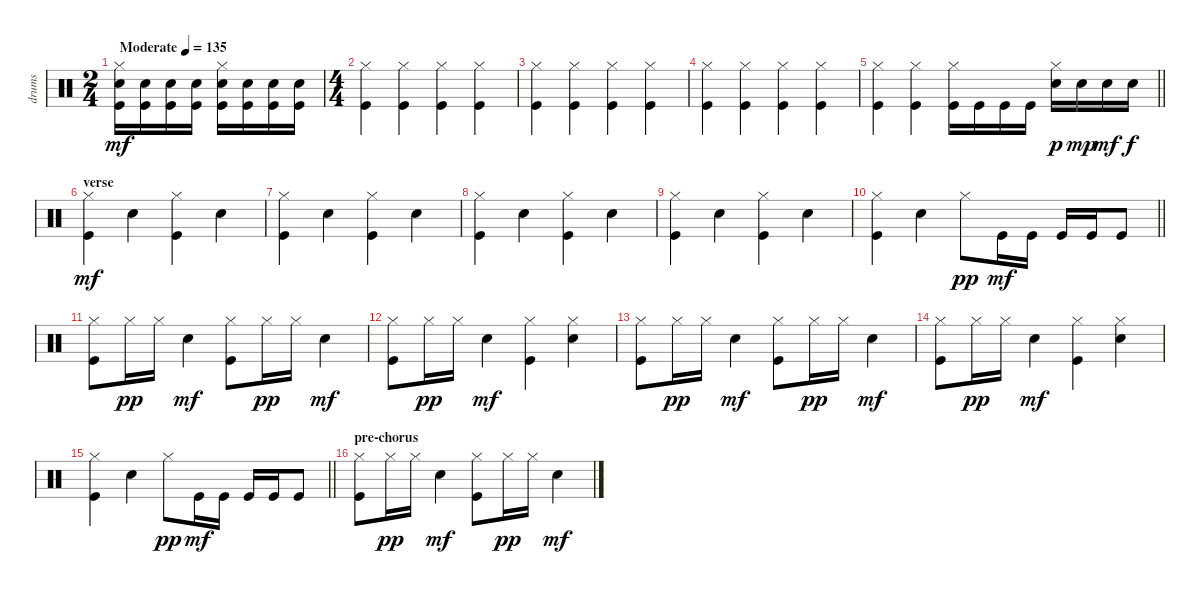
\track ("drums" "drums") {instrument percussion}
\staff {score}
\articulation defaults
\ts (2 4)
\tempo (135 "Moderate")
\clef neutral
\ks c
("Hi-Hat (closed)" "Snare (hit) 2" "Kick (hit)").16{dy mf} ("Snare (hit) 2" "Kick (hit)").16 ("Snare (hit) 2" "Kick (hit)").16 ("Snare (hit) 2" "Kick (hit)").16 ("Hi-Hat (closed)" "Snare (hit) 2" "Kick (hit)").16 ("Snare (hit) 2" "Kick (hit)").16 ("Snare (hit) 2" "Kick (hit)").16 ("Snare (hit) 2" "Kick (hit)").16 |
\ts (4 4)
("Hi-Hat (closed)" "Kick (hit)").4 ("Hi-Hat (closed)" "Kick (hit)").4 ("Hi-Hat (closed)" "Kick (hit)").4 ("Hi-Hat (closed)" "Kick (hit)").4 |
("Hi-Hat (closed)" "Kick (hit)").4 ("Hi-Hat (closed)" "Kick (hit)").4 ("Hi-Hat (closed)" "Kick (hit)").4 ("Hi-Hat (closed)" "Kick (hit)").4 |
("Hi-Hat (closed)" "Kick (hit)").4 ("Hi-Hat (closed)" "Kick (hit)").4 ("Hi-Hat (closed)" "Kick (hit)").4 ("Hi-Hat (closed)" "Kick (hit)").4 |
\barLineRight lightlight
("Hi-Hat (closed)" "Kick (hit)").4 ("Hi-Hat (closed)" "Kick (hit)").4 ("Hi-Hat (closed)" "Kick (hit)").16 "Kick (hit)".16 "Kick (hit)".16 "Kick (hit)".16 ("Hi-Hat (closed)" "Snare (hit) 2").16{dy p} "Snare (hit) 2".16{dy mp} "Snare (hit) 2".16{dy mf} "Snare (hit) 2".16{dy f} |
\section ("" "verse")
("Hi-Hat (closed)" "Kick (hit)").4{dy mf} "Snare (hit) 2".4 ("Hi-Hat (closed)" "Kick (hit)").4 "Snare (hit) 2".4 |
("Hi-Hat (closed)" "Kick (hit)").4 "Snare (hit) 2".4 ("Hi-Hat (closed)" "Kick (hit)").4 "Snare (hit) 2".4 |
("Hi-Hat (closed)" "Kick (hit)").4 "Snare (hit) 2".4 ("Hi-Hat (closed)" "Kick (hit)").4 "Snare (hit) 2".4 |
("Hi-Hat (closed)" "Kick (hit)").4 "Snare (hit) 2".4 ("Hi-Hat (closed)" "Kick (hit)").4 "Snare (hit) 2".4 |
\barLineRight lightlight
("Hi-Hat (closed)" "Kick (hit)").4 "Snare (hit) 2".4 "Hi-Hat (closed)".8{dy pp} "Kick (hit)".16{dy mf} "Kick (hit)".16 "Kick (hit)".16 "Kick (hit)".16 "Kick (hit)".8 |
("Hi-Hat (closed)" "Kick (hit)").8 "Hi-Hat (closed)".16{dy pp} "Hi-Hat (closed)".16 "Snare (hit) 2".4{dy mf} ("Hi-Hat (closed)" "Kick (hit)").8 "Hi-Hat (closed)".16{dy pp} "Hi-Hat (closed)".16 "Snare (hit) 2".4{dy mf} |
("Hi-Hat (closed)" "Kick (hit)").8 "Hi-Hat (closed)".16{dy pp} "Hi-Hat (closed)".16 "Snare (hit) 2".4{dy mf} ("Hi-Hat (closed)" "Kick (hit)").4 ("Hi-Hat (closed)" "Snare (hit) 2").4 |
("Hi-Hat (closed)" "Kick (hit)").8 "Hi-Hat (closed)".16{dy pp} "Hi-Hat (closed)".16 "Snare (hit) 2".4{dy mf} ("Hi-Hat (closed)" "Kick (hit)").8 "Hi-Hat (closed)".16{dy pp} "Hi-Hat (closed)".16 "Snare (hit) 2".4{dy mf} |
("Hi-Hat (closed)" "Kick (hit)").8 "Hi-Hat (closed)".16{dy pp} "Hi-Hat (closed)".16 "Snare (hit) 2".4{dy mf} ("Hi-Hat (closed)" "Kick (hit)").4 ("Hi-Hat (closed)" "Snare (hit) 2").4 |
\barLineRight lightlight
("Hi-Hat (closed)" "Kick (hit)").4 "Snare (hit) 2".4 "Hi-Hat (closed)".8{dy pp} "Kick (hit)".16{dy mf} "Kick (hit)".16 "Kick (hit)".16 "Kick (hit)".16 "Kick (hit)".8 |
\section ("" "pre-chorus")
("Hi-Hat (closed)" "Kick (hit)").8 "Hi-Hat (closed)".16{dy pp} "Hi-Hat (closed)".16 "Snare (hit) 2".4{dy mf} ("Hi-Hat (closed)" "Kick (hit)").8 "Hi-Hat (closed)".16{dy pp} "Hi-Hat (closed)".16 "Snare (hit) 2".4{dy mf}
